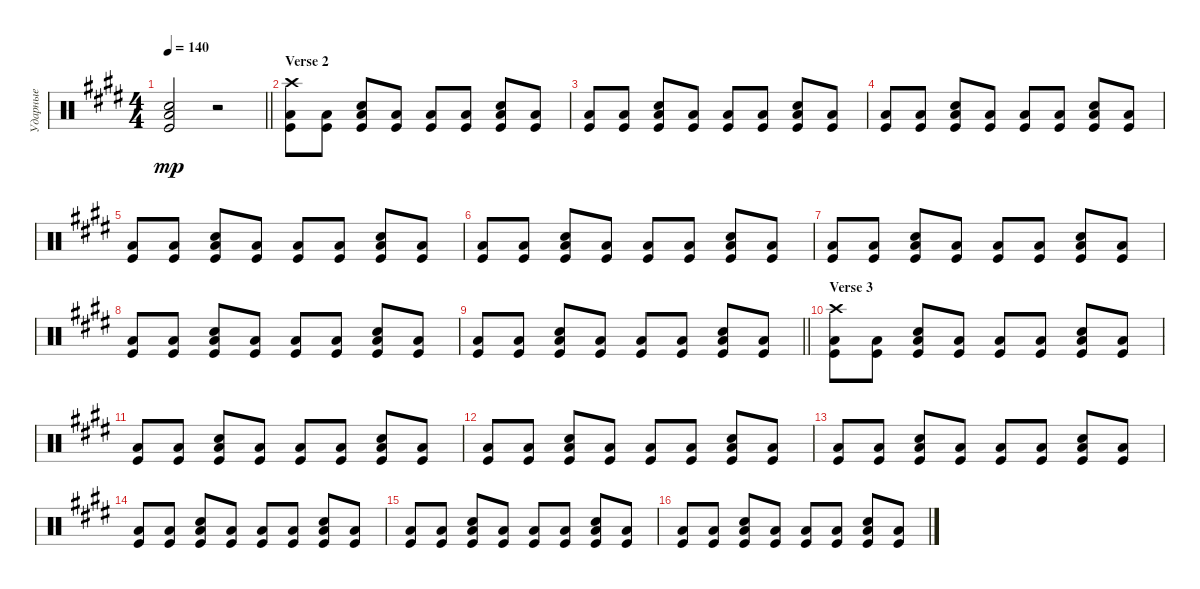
\track ("Ударные" "Ударные") {instrument percussion}
\staff {score}
\articulation defaults
\ts (4 4)
\tempo 140
\clef neutral
\barLineRight lightlight
\ks c#minor
("Kick (hit)" "Snare (hit) 2" "Low Floor Tom (hit)").2{bd 240 dy mp} r.2 |
\section ("" "Verse 2")
("Kick (hit)" "Low Floor Tom (hit)" "Crash high (hit)").8 ("Kick (hit)" "Low Floor Tom (hit)").8 ("Kick (hit)" "Low Floor Tom (hit)" "Snare (hit) 2").8 ("Kick (hit)" "Low Floor Tom (hit)").8 ("Kick (hit)" "Low Floor Tom (hit)").8 ("Kick (hit)" "Low Floor Tom (hit)").8 ("Kick (hit)" "Low Floor Tom (hit)" "Snare (hit) 2").8 ("Kick (hit)" "Low Floor Tom (hit)").8 |
("Kick (hit)" "Low Floor Tom (hit)").8 ("Kick (hit)" "Low Floor Tom (hit)").8 ("Kick (hit)" "Low Floor Tom (hit)" "Snare (hit) 2").8 ("Kick (hit)" "Low Floor Tom (hit)").8 ("Kick (hit)" "Low Floor Tom (hit)").8 ("Kick (hit)" "Low Floor Tom (hit)").8 ("Kick (hit)" "Low Floor Tom (hit)" "Snare (hit) 2").8 ("Kick (hit)" "Low Floor Tom (hit)").8 |
("Kick (hit)" "Low Floor Tom (hit)").8 ("Kick (hit)" "Low Floor Tom (hit)").8 ("Kick (hit)" "Low Floor Tom (hit)" "Snare (hit) 2").8 ("Kick (hit)" "Low Floor Tom (hit)").8 ("Kick (hit)" "Low Floor Tom (hit)").8 ("Kick (hit)" "Low Floor Tom (hit)").8 ("Kick (hit)" "Low Floor Tom (hit)" "Snare (hit) 2").8 ("Kick (hit)" "Low Floor Tom (hit)").8 |
("Kick (hit)" "Low Floor Tom (hit)").8 ("Kick (hit)" "Low Floor Tom (hit)").8 ("Kick (hit)" "Low Floor Tom (hit)" "Snare (hit) 2").8 ("Kick (hit)" "Low Floor Tom (hit)").8 ("Kick (hit)" "Low Floor Tom (hit)").8 ("Kick (hit)" "Low Floor Tom (hit)").8 ("Kick (hit)" "Low Floor Tom (hit)" "Snare (hit) 2").8 ("Kick (hit)" "Low Floor Tom (hit)").8 |
("Kick (hit)" "Low Floor Tom (hit)").8 ("Kick (hit)" "Low Floor Tom (hit)").8 ("Kick (hit)" "Low Floor Tom (hit)" "Snare (hit) 2").8 ("Kick (hit)" "Low Floor Tom (hit)").8 ("Kick (hit)" "Low Floor Tom (hit)").8 ("Kick (hit)" "Low Floor Tom (hit)").8 ("Kick (hit)" "Low Floor Tom (hit)" "Snare (hit) 2").8 ("Kick (hit)" "Low Floor Tom (hit)").8 |
("Kick (hit)" "Low Floor Tom (hit)").8 ("Kick (hit)" "Low Floor Tom (hit)").8 ("Kick (hit)" "Low Floor Tom (hit)" "Snare (hit) 2").8 ("Kick (hit)" "Low Floor Tom (hit)").8 ("Kick (hit)" "Low Floor Tom (hit)").8 ("Kick (hit)" "Low Floor Tom (hit)").8 ("Kick (hit)" "Low Floor Tom (hit)" "Snare (hit) 2").8 ("Kick (hit)" "Low Floor Tom (hit)").8 |
("Kick (hit)" "Low Floor Tom (hit)").8 ("Kick (hit)" "Low Floor Tom (hit)").8 ("Kick (hit)" "Low Floor Tom (hit)" "Snare (hit) 2").8 ("Kick (hit)" "Low Floor Tom (hit)").8 ("Kick (hit)" "Low Floor Tom (hit)").8 ("Kick (hit)" "Low Floor Tom (hit)").8 ("Kick (hit)" "Low Floor Tom (hit)" "Snare (hit) 2").8 ("Kick (hit)" "Low Floor Tom (hit)").8 |
\barLineRight lightlight
("Kick (hit)" "Low Floor Tom (hit)").8 ("Kick (hit)" "Low Floor Tom (hit)").8 ("Kick (hit)" "Low Floor Tom (hit)" "Snare (hit) 2").8 ("Kick (hit)" "Low Floor Tom (hit)").8 ("Kick (hit)" "Low Floor Tom (hit)").8 ("Kick (hit)" "Low Floor Tom (hit)").8 ("Kick (hit)" "Low Floor Tom (hit)" "Snare (hit) 2").8 ("Kick (hit)" "Low Floor Tom (hit)").8 |
\section ("" "Verse 3")
("Kick (hit)" "Low Floor Tom (hit)" "Crash high (hit)").8 ("Kick (hit)" "Low Floor Tom (hit)").8 ("Kick (hit)" "Low Floor Tom (hit)" "Snare (hit) 2").8 ("Kick (hit)" "Low Floor Tom (hit)").8 ("Kick (hit)" "Low Floor Tom (hit)").8 ("Kick (hit)" "Low Floor Tom (hit)").8 ("Kick (hit)" "Low Floor Tom (hit)" "Snare (hit) 2").8 ("Kick (hit)" "Low Floor Tom (hit)").8 |
("Kick (hit)" "Low Floor Tom (hit)").8 ("Kick (hit)" "Low Floor Tom (hit)").8 ("Kick (hit)" "Low Floor Tom (hit)" "Snare (hit) 2").8 ("Kick (hit)" "Low Floor Tom (hit)").8 ("Kick (hit)" "Low Floor Tom (hit)").8 ("Kick (hit)" "Low Floor Tom (hit)").8 ("Kick (hit)" "Low Floor Tom (hit)" "Snare (hit) 2").8 ("Kick (hit)" "Low Floor Tom (hit)").8 |
("Kick (hit)" "Low Floor Tom (hit)").8 ("Kick (hit)" "Low Floor Tom (hit)").8 ("Kick (hit)" "Low Floor Tom (hit)" "Snare (hit) 2").8 ("Kick (hit)" "Low Floor Tom (hit)").8 ("Kick (hit)" "Low Floor Tom (hit)").8 ("Kick (hit)" "Low Floor Tom (hit)").8 ("Kick (hit)" "Low Floor Tom (hit)" "Snare (hit) 2").8 ("Kick (hit)" "Low Floor Tom (hit)").8 |
("Kick (hit)" "Low Floor Tom (hit)").8 ("Kick (hit)" "Low Floor Tom (hit)").8 ("Kick (hit)" "Low Floor Tom (hit)" "Snare (hit) 2").8 ("Kick (hit)" "Low Floor Tom (hit)").8 ("Kick (hit)" "Low Floor Tom (hit)").8 ("Kick (hit)" "Low Floor Tom (hit)").8 ("Kick (hit)" "Low Floor Tom (hit)" "Snare (hit) 2").8 ("Kick (hit)" "Low Floor Tom (hit)").8 |
("Kick (hit)" "Low Floor Tom (hit)").8 ("Kick (hit)" "Low Floor Tom (hit)").8 ("Kick (hit)" "Low Floor Tom (hit)" "Snare (hit) 2").8 ("Kick (hit)" "Low Floor Tom (hit)").8 ("Kick (hit)" "Low Floor Tom (hit)").8 ("Kick (hit)" "Low Floor Tom (hit)").8 ("Kick (hit)" "Low Floor Tom (hit)" "Snare (hit) 2").8 ("Kick (hit)" "Low Floor Tom (hit)").8 |
("Kick (hit)" "Low Floor Tom (hit)").8 ("Kick (hit)" "Low Floor Tom (hit)").8 ("Kick (hit)" "Low Floor Tom (hit)" "Snare (hit) 2").8 ("Kick (hit)" "Low Floor Tom (hit)").8 ("Kick (hit)" "Low Floor Tom (hit)").8 ("Kick (hit)" "Low Floor Tom (hit)").8 ("Kick (hit)" "Low Floor Tom (hit)" "Snare (hit) 2").8 ("Kick (hit)" "Low Floor Tom (hit)").8 |
("Kick (hit)" "Low Floor Tom (hit)").8 ("Kick (hit)" "Low Floor Tom (hit)").8 ("Kick (hit)" "Low Floor Tom (hit)" "Snare (hit) 2").8 ("Kick (hit)" "Low Floor Tom (hit)").8 ("Kick (hit)" "Low Floor Tom (hit)").8 ("Kick (hit)" "Low Floor Tom (hit)").8 ("Kick (hit)" "Low Floor Tom (hit)" "Snare (hit) 2").8 ("Kick (hit)" "Low Floor Tom (hit)").8
